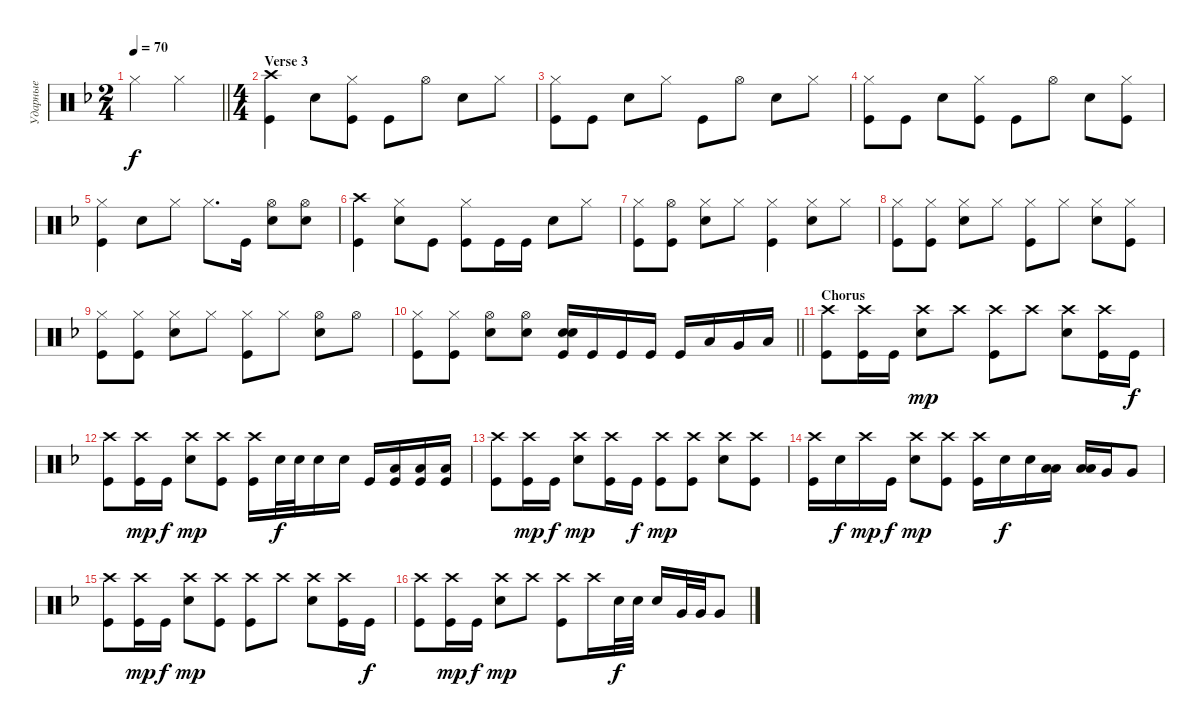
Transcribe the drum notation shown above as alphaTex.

\track ("Ударные" "Ударные") {instrument percussion}
\staff {score}
\articulation defaults
\ts (2 4)
\tempo 70
\clef neutral
\barLineRight lightlight
\ks dminor "Hi-Hat (closed)".4{dy f} "Hi-Hat (closed)".4
|
\ts (4 4)
\section ("" "Verse 3")
("Kick (hit)" "Crash high (hit)").4 "Snare (hit) 2".8 ("Kick (hit)" "Hi-Hat (closed)").8 "Kick (hit)".8 "Hi-Hat (open)".8 "Snare (hit) 2".8 "Hi-Hat (closed)".8 |
("Kick (hit)" "Hi-Hat (closed)").8 "Kick (hit)".8 "Snare (hit) 2".8 "Hi-Hat (closed)".8 "Kick (hit)".8 "Hi-Hat (open)".8 "Snare (hit) 2".8 "Hi-Hat (closed)".8 |
("Kick (hit)" "Hi-Hat (closed)").8 "Kick (hit)".8 "Snare (hit) 2".8 ("Hi-Hat (closed)" "Kick (hit)").8 "Kick (hit)".8 "Hi-Hat (open)".8 "Snare (hit) 2".8 ("Hi-Hat (closed)" "Kick (hit)").8 |
("Kick (hit)" "Hi-Hat (closed)").4 "Snare (hit) 2".8 "Hi-Hat (closed)".8 "Hi-Hat (closed)".8{d} "Kick (hit)".16 ("Snare (hit) 2" "Hi-Hat (open)").8 ("Snare (hit) 2" "Hi-Hat (open)").8 |
("Kick (hit)" "Crash high (hit)").4 ("Snare (hit) 2" "Hi-Hat (closed)").8 "Kick (hit)".8 ("Kick (hit)" "Hi-Hat (closed)").8 "Kick (hit)".16 "Kick (hit)".16 "Snare (hit) 2".8 "Hi-Hat (closed)".8 |
("Kick (hit)" "Hi-Hat (closed)").8 ("Kick (hit)" "Hi-Hat (open)").8 ("Snare (hit) 2" "Hi-Hat (closed)").8 "Hi-Hat (closed)".8 ("Hi-Hat (closed)" "Kick (hit)").4 ("Snare (hit) 2" "Hi-Hat (closed)").8 "Hi-Hat (closed)".8 |
("Kick (hit)" "Hi-Hat (closed)").8 ("Hi-Hat (closed)" "Kick (hit)").8 ("Snare (hit) 2" "Hi-Hat (closed)").8 "Hi-Hat (closed)".8 ("Kick (hit)" "Hi-Hat (closed)").8 "Hi-Hat (closed)".8 ("Snare (hit) 2" "Hi-Hat (closed)").8 ("Hi-Hat (closed)" "Kick (hit)").8 |
("Kick (hit)" "Hi-Hat (closed)").8 ("Hi-Hat (closed)" "Kick (hit)").8 ("Snare (hit) 2" "Hi-Hat (closed)").8 "Hi-Hat (closed)".8 ("Kick (hit)" "Hi-Hat (closed)").8 "Hi-Hat (closed)".8 ("Snare (hit) 2" "Hi-Hat (open)").8 "Hi-Hat (open)".8 |
\barLineRight lightlight
("Kick (hit)" "Hi-Hat (closed)").8 ("Hi-Hat (closed)" "Kick (hit)").8 ("Snare (hit) 2" "Hi-Hat (open)").8 ("Hi-Hat (open)" "Snare (hit) 2").8 ("Snare (hit) 2" "Snare (hit) 2" "Kick (hit)").16{bd 60} "Kick (hit)".16 "Kick (hit)".16 "Kick (hit)".16 "Kick (hit)".16 "Low Tom (hit)".16 "Very Low Tom (hit)".16 "Low Floor Tom (hit)".16 |
\section ("" "Chorus")
("Kick (hit)" "Crash high (hit)").8 ("Kick (hit)" "Crash high (hit)").16 "Kick (hit)".16 ("Snare (hit) 2" "Crash high (hit)").8{dy mp} "Crash high (hit)".8 ("Kick (hit)" "Crash high (hit)").8 "Crash high (hit)".8 ("Snare (hit) 2" "Crash high (hit)").8 ("Kick (hit)" "Crash high (hit)").16 "Kick (hit)".16{dy f} |
("Crash high (hit)" "Kick (hit)").8 ("Kick (hit)" "Crash high (hit)").16{dy mp} "Kick (hit)".16{dy f} ("Snare (hit) 2" "Crash high (hit)").8{dy mp} ("Kick (hit)" "Crash high (hit)").8 ("Kick (hit)" "Crash high (hit)").16 "Snare (hit) 2".32{dy f} "Snare (hit) 2".32 "Snare (hit) 2".16 "Snare (hit) 2".16 "Kick (hit)".16 ("Low Tom (hit)" "Kick (hit)").16 ("Kick (hit)" "Low Floor Tom (hit)").16 ("Kick (hit)" "Low Floor Tom (hit)").16 |
("Crash high (hit)" "Kick (hit)").8 ("Kick (hit)" "Crash high (hit)").16{dy mp} "Kick (hit)".16{dy f} ("Snare (hit) 2" "Crash high (hit)").8{dy mp} ("Kick (hit)" "Crash high (hit)").16 "Kick (hit)".16{dy f} ("Kick (hit)" "Crash high (hit)").8{dy mp} ("Kick (hit)" "Crash high (hit)").8 ("Snare (hit) 2" "Crash high (hit)").8 ("Crash high (hit)" "Kick (hit)").8 |
("Kick (hit)" "Crash high (hit)").16 "Snare (hit) 2".16{dy f} "Crash high (hit)".16{dy mp} "Kick (hit)".16{dy f} ("Snare (hit) 2" "Crash high (hit)").8{dy mp} ("Kick (hit)" "Crash high (hit)").8 ("Kick (hit)" "Crash high (hit)").16 "Snare (hit) 2".16{dy f} "Snare (hit) 2".16 ("Low Tom (hit)" "Low Tom (hit)").16{bd 60} ("Low Tom (hit)" "Low Tom (hit)").16{bd 60} "Very Low Tom (hit)".16 "Very Low Tom (hit)".8 |
("Kick (hit)" "Crash high (hit)").8 ("Kick (hit)" "Crash high (hit)").16{dy mp} "Kick (hit)".16{dy f} ("Snare (hit) 2" "Crash high (hit)").8{dy mp} ("Kick (hit)" "Crash high (hit)").8 ("Kick (hit)" "Crash high (hit)").8 "Crash high (hit)".8 ("Snare (hit) 2" "Crash high (hit)").8 ("Kick (hit)" "Crash high (hit)").16 "Kick (hit)".16{dy f} |
("Crash high (hit)" "Kick (hit)").8 ("Kick (hit)" "Crash high (hit)").16{dy mp} "Kick (hit)".16{dy f} ("Snare (hit) 2" "Crash high (hit)").8{dy mp} "Crash high (hit)".8 ("Kick (hit)" "Crash high (hit)").8 "Crash high (hit)".16 "Snare (hit) 2".32{dy f} "Snare (hit) 2".32 "Snare (hit) 2".16 "Very Low Tom (hit)".32 "Very Low Tom (hit)".32 "Very Low Tom (hit)".8
